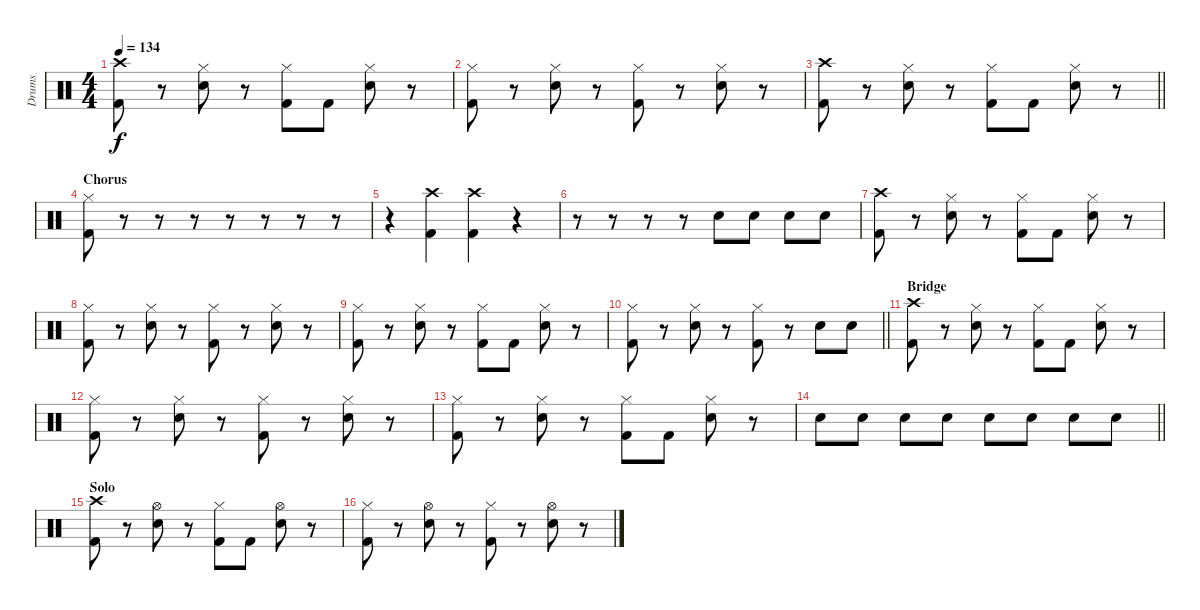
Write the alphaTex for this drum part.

\track ("Drums" "Drums") {instrument percussion}
\staff {score}
\articulation defaults
\ts (4 4)
\tempo 134
\clef neutral
\ks c
("Crash high (hit)" "Kick (hit) 2").8{dy f} r.8 ("Hi-Hat (closed)" "Snare (hit) 2").8 r.8 ("Hi-Hat (closed)" "Kick (hit) 2").8 "Kick (hit) 2".8 ("Hi-Hat (closed)" "Snare (hit) 2").8 r.8 |
("Hi-Hat (closed)" "Kick (hit) 2").8 r.8 ("Hi-Hat (closed)" "Snare (hit) 2").8 r.8 ("Hi-Hat (closed)" "Kick (hit) 2").8 r.8 ("Hi-Hat (closed)" "Snare (hit) 2").8 r.8 |
\barLineRight lightlight
("Crash high (hit)" "Kick (hit) 2").8 r.8 ("Hi-Hat (closed)" "Snare (hit) 2").8 r.8 ("Hi-Hat (closed)" "Kick (hit) 2").8 "Kick (hit) 2".8 ("Hi-Hat (closed)" "Snare (hit) 2").8 r.8 |
\section ("" "Chorus")
("Hi-Hat (closed)" "Kick (hit) 2").8 r.8 r.8 r.8 r.8 r.8 r.8 r.8 |
r.4 ("Crash high (hit)" "Kick (hit) 2").4 ("Crash high (hit)" "Kick (hit) 2").4 r.4 |
r.8 r.8 r.8 r.8 "Snare (hit) 2".8 "Snare (hit) 2".8 "Snare (hit) 2".8 "Snare (hit) 2".8 |
("Crash high (hit)" "Kick (hit) 2").8 r.8 ("Hi-Hat (closed)" "Snare (hit) 2").8 r.8 ("Hi-Hat (closed)" "Kick (hit) 2").8 "Kick (hit) 2".8 ("Hi-Hat (closed)" "Snare (hit) 2").8 r.8 |
("Hi-Hat (closed)" "Kick (hit) 2").8 r.8 ("Hi-Hat (closed)" "Snare (hit) 2").8 r.8 ("Hi-Hat (closed)" "Kick (hit) 2").8 r.8 ("Hi-Hat (closed)" "Snare (hit) 2").8 r.8 |
("Hi-Hat (closed)" "Kick (hit) 2").8 r.8 ("Hi-Hat (closed)" "Snare (hit) 2").8 r.8 ("Hi-Hat (closed)" "Kick (hit) 2").8 "Kick (hit) 2".8 ("Hi-Hat (closed)" "Snare (hit) 2").8 r.8 |
\barLineRight lightlight
("Hi-Hat (closed)" "Kick (hit) 2").8 r.8 ("Hi-Hat (closed)" "Snare (hit) 2").8 r.8 ("Hi-Hat (closed)" "Kick (hit) 2").8 r.8 "Snare (hit) 2".8 "Snare (hit) 2".8 |
\section ("" "Bridge")
("Crash high (hit)" "Kick (hit) 2").8 r.8 ("Hi-Hat (closed)" "Snare (hit) 2").8 r.8 ("Hi-Hat (closed)" "Kick (hit) 2").8 "Kick (hit) 2".8 ("Hi-Hat (closed)" "Snare (hit) 2").8 r.8 |
("Hi-Hat (closed)" "Kick (hit) 2").8 r.8 ("Hi-Hat (closed)" "Snare (hit) 2").8 r.8 ("Hi-Hat (closed)" "Kick (hit) 2").8 r.8 ("Hi-Hat (closed)" "Snare (hit) 2").8 r.8 |
("Hi-Hat (closed)" "Kick (hit) 2").8 r.8 ("Hi-Hat (closed)" "Snare (hit) 2").8 r.8 ("Hi-Hat (closed)" "Kick (hit) 2").8 "Kick (hit) 2".8 ("Hi-Hat (closed)" "Snare (hit) 2").8 r.8 |
\barLineRight lightlight "Snare (hit) 2".8 "Snare (hit) 2".8 "Snare (hit) 2".8 "Snare (hit) 2".8 "Snare (hit) 2".8 "Snare (hit) 2".8 "Snare (hit) 2".8 "Snare (hit) 2".8
|
\section ("" "Solo")
("Crash high (hit)" "Kick (hit) 2").8 r.8 ("Hi-Hat (open)" "Snare (hit) 2").8 r.8 ("Hi-Hat (closed)" "Kick (hit) 2").8 "Kick (hit) 2".8 ("Hi-Hat (open)" "Snare (hit) 2").8 r.8 |
("Hi-Hat (closed)" "Kick (hit) 2").8 r.8 ("Hi-Hat (open)" "Snare (hit) 2").8 r.8 ("Hi-Hat (closed)" "Kick (hit) 2").8 r.8 ("Hi-Hat (open)" "Snare (hit) 2").8 r.8
